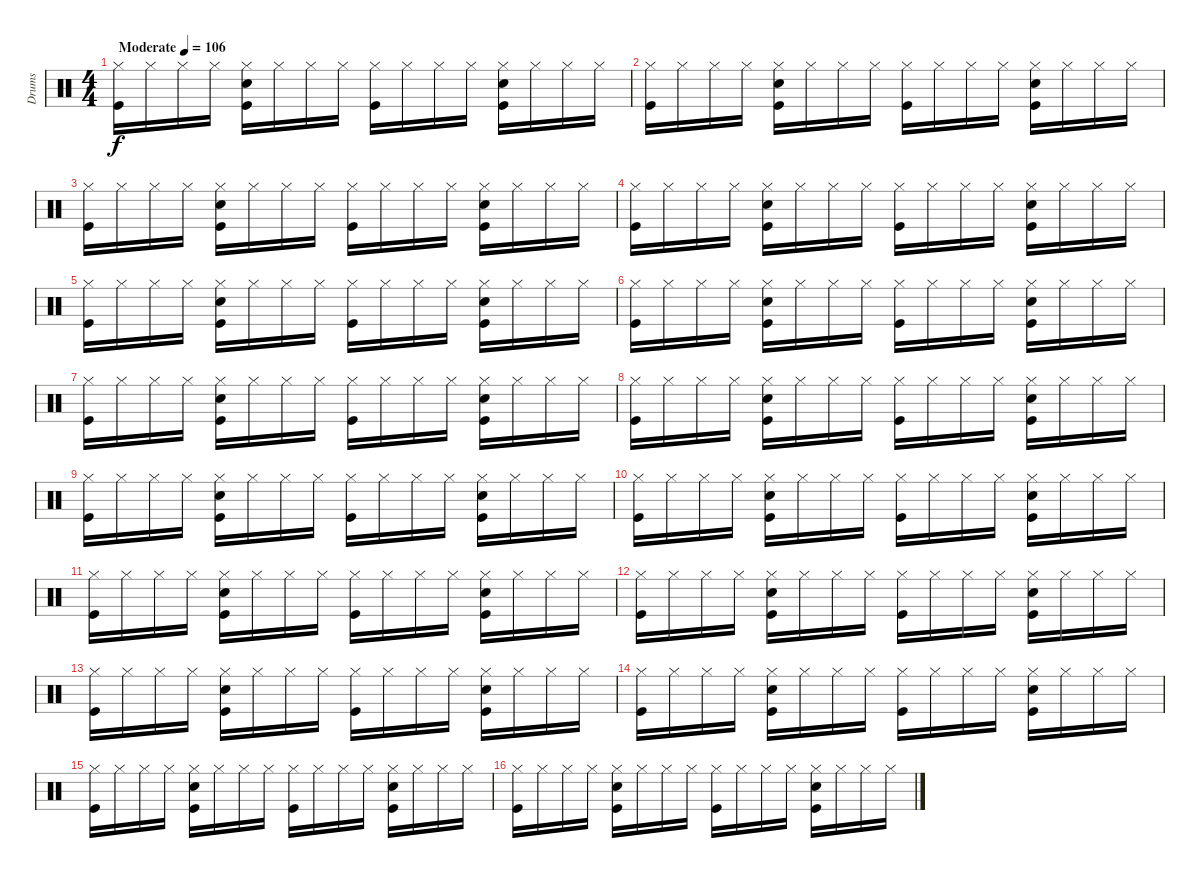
\track ("Drums" "Drums") {instrument percussion}
\staff {score}
\articulation defaults
\ts (4 4)
\tempo (106 "Moderate")
\clef neutral
\ks c
("Hi-Hat (closed)" "Kick (hit)").16{dy f} "Hi-Hat (closed)".16 "Hi-Hat (closed)".16 "Hi-Hat (closed)".16 ("Hi-Hat (closed)" "Snare (hit) 2" "Kick (hit)").16 "Hi-Hat (closed)".16 "Hi-Hat (closed)".16 "Hi-Hat (closed)".16 ("Hi-Hat (closed)" "Kick (hit)").16 "Hi-Hat (closed)".16 "Hi-Hat (closed)".16 "Hi-Hat (closed)".16 ("Hi-Hat (closed)" "Snare (hit) 2" "Kick (hit)").16 "Hi-Hat (closed)".16 "Hi-Hat (closed)".16 "Hi-Hat (closed)".16 |
("Hi-Hat (closed)" "Kick (hit)").16 "Hi-Hat (closed)".16 "Hi-Hat (closed)".16 "Hi-Hat (closed)".16 ("Hi-Hat (closed)" "Snare (hit) 2" "Kick (hit)").16 "Hi-Hat (closed)".16 "Hi-Hat (closed)".16 "Hi-Hat (closed)".16 ("Hi-Hat (closed)" "Kick (hit)").16 "Hi-Hat (closed)".16 "Hi-Hat (closed)".16 "Hi-Hat (closed)".16 ("Hi-Hat (closed)" "Snare (hit) 2" "Kick (hit)").16 "Hi-Hat (closed)".16 "Hi-Hat (closed)".16 "Hi-Hat (closed)".16 |
("Hi-Hat (closed)" "Kick (hit)").16 "Hi-Hat (closed)".16 "Hi-Hat (closed)".16 "Hi-Hat (closed)".16 ("Snare (hit) 2" "Hi-Hat (closed)" "Kick (hit)").16 "Hi-Hat (closed)".16 "Hi-Hat (closed)".16 "Hi-Hat (closed)".16 ("Hi-Hat (closed)" "Kick (hit)").16 "Hi-Hat (closed)".16 "Hi-Hat (closed)".16 "Hi-Hat (closed)".16 ("Hi-Hat (closed)" "Snare (hit) 2" "Kick (hit)").16 "Hi-Hat (closed)".16 "Hi-Hat (closed)".16 "Hi-Hat (closed)".16 |
("Hi-Hat (closed)" "Kick (hit)").16 "Hi-Hat (closed)".16 "Hi-Hat (closed)".16 "Hi-Hat (closed)".16 ("Snare (hit) 2" "Hi-Hat (closed)" "Kick (hit)").16 "Hi-Hat (closed)".16 "Hi-Hat (closed)".16 "Hi-Hat (closed)".16 ("Hi-Hat (closed)" "Kick (hit)").16 "Hi-Hat (closed)".16 "Hi-Hat (closed)".16 "Hi-Hat (closed)".16 ("Hi-Hat (closed)" "Snare (hit) 2" "Kick (hit)").16 "Hi-Hat (closed)".16 "Hi-Hat (closed)".16 "Hi-Hat (closed)".16 |
("Kick (hit)" "Hi-Hat (closed)").16 "Hi-Hat (closed)".16 "Hi-Hat (closed)".16 "Hi-Hat (closed)".16 ("Kick (hit)" "Hi-Hat (closed)" "Snare (hit) 2").16 "Hi-Hat (closed)".16 "Hi-Hat (closed)".16 "Hi-Hat (closed)".16 ("Kick (hit)" "Hi-Hat (closed)").16 "Hi-Hat (closed)".16 "Hi-Hat (closed)".16 "Hi-Hat (closed)".16 ("Kick (hit)" "Snare (hit) 2" "Hi-Hat (closed)").16 "Hi-Hat (closed)".16 "Hi-Hat (closed)".16 "Hi-Hat (closed)".16 |
("Hi-Hat (closed)" "Kick (hit)").16 "Hi-Hat (closed)".16 "Hi-Hat (closed)".16 "Hi-Hat (closed)".16 ("Kick (hit)" "Hi-Hat (closed)" "Snare (hit) 2").16 "Hi-Hat (closed)".16 "Hi-Hat (closed)".16 "Hi-Hat (closed)".16 ("Kick (hit)" "Hi-Hat (closed)").16 "Hi-Hat (closed)".16 "Hi-Hat (closed)".16 "Hi-Hat (closed)".16 ("Kick (hit)" "Snare (hit) 2" "Hi-Hat (closed)").16 "Hi-Hat (closed)".16 "Hi-Hat (closed)".16 "Hi-Hat (closed)".16 |
("Hi-Hat (closed)" "Kick (hit)").16 "Hi-Hat (closed)".16 "Hi-Hat (closed)".16 "Hi-Hat (closed)".16 ("Kick (hit)" "Hi-Hat (closed)" "Snare (hit) 2").16 "Hi-Hat (closed)".16 "Hi-Hat (closed)".16 "Hi-Hat (closed)".16 ("Kick (hit)" "Hi-Hat (closed)").16 "Hi-Hat (closed)".16 "Hi-Hat (closed)".16 "Hi-Hat (closed)".16 ("Kick (hit)" "Snare (hit) 2" "Hi-Hat (closed)").16 "Hi-Hat (closed)".16 "Hi-Hat (closed)".16 "Hi-Hat (closed)".16 |
("Kick (hit)" "Hi-Hat (closed)").16 "Hi-Hat (closed)".16 "Hi-Hat (closed)".16 "Hi-Hat (closed)".16 ("Kick (hit)" "Hi-Hat (closed)" "Snare (hit) 2").16 "Hi-Hat (closed)".16 "Hi-Hat (closed)".16 "Hi-Hat (closed)".16 ("Kick (hit)" "Hi-Hat (closed)").16 "Hi-Hat (closed)".16 "Hi-Hat (closed)".16 "Hi-Hat (closed)".16 ("Kick (hit)" "Snare (hit) 2" "Hi-Hat (closed)").16 "Hi-Hat (closed)".16 "Hi-Hat (closed)".16 "Hi-Hat (closed)".16 |
("Kick (hit)" "Hi-Hat (closed)").16 "Hi-Hat (closed)".16 "Hi-Hat (closed)".16 "Hi-Hat (closed)".16 ("Kick (hit)" "Hi-Hat (closed)" "Snare (hit) 2").16 "Hi-Hat (closed)".16 "Hi-Hat (closed)".16 "Hi-Hat (closed)".16 ("Kick (hit)" "Hi-Hat (closed)").16 "Hi-Hat (closed)".16 "Hi-Hat (closed)".16 "Hi-Hat (closed)".16 ("Kick (hit)" "Snare (hit) 2" "Hi-Hat (closed)").16 "Hi-Hat (closed)".16 "Hi-Hat (closed)".16 "Hi-Hat (closed)".16 |
("Kick (hit)" "Hi-Hat (closed)").16 "Hi-Hat (closed)".16 "Hi-Hat (closed)".16 "Hi-Hat (closed)".16 ("Kick (hit)" "Hi-Hat (closed)" "Snare (hit) 2").16 "Hi-Hat (closed)".16 "Hi-Hat (closed)".16 "Hi-Hat (closed)".16 ("Kick (hit)" "Hi-Hat (closed)").16 "Hi-Hat (closed)".16 "Hi-Hat (closed)".16 "Hi-Hat (closed)".16 ("Kick (hit)" "Snare (hit) 2" "Hi-Hat (closed)").16 "Hi-Hat (closed)".16 "Hi-Hat (closed)".16 "Hi-Hat (closed)".16 |
("Kick (hit)" "Hi-Hat (closed)").16 "Hi-Hat (closed)".16 "Hi-Hat (closed)".16 "Hi-Hat (closed)".16 ("Kick (hit)" "Hi-Hat (closed)" "Snare (hit) 2").16 "Hi-Hat (closed)".16 "Hi-Hat (closed)".16 "Hi-Hat (closed)".16 ("Kick (hit)" "Hi-Hat (closed)").16 "Hi-Hat (closed)".16 "Hi-Hat (closed)".16 "Hi-Hat (closed)".16 ("Kick (hit)" "Snare (hit) 2" "Hi-Hat (closed)").16 "Hi-Hat (closed)".16 "Hi-Hat (closed)".16 "Hi-Hat (closed)".16 |
("Kick (hit)" "Hi-Hat (closed)").16 "Hi-Hat (closed)".16 "Hi-Hat (closed)".16 "Hi-Hat (closed)".16 ("Kick (hit)" "Hi-Hat (closed)" "Snare (hit) 2").16 "Hi-Hat (closed)".16 "Hi-Hat (closed)".16 "Hi-Hat (closed)".16 ("Kick (hit)" "Hi-Hat (closed)").16 "Hi-Hat (closed)".16 "Hi-Hat (closed)".16 "Hi-Hat (closed)".16 ("Kick (hit)" "Snare (hit) 2" "Hi-Hat (closed)").16 "Hi-Hat (closed)".16 "Hi-Hat (closed)".16 "Hi-Hat (closed)".16 |
("Kick (hit)" "Hi-Hat (closed)").16 "Hi-Hat (closed)".16 "Hi-Hat (closed)".16 "Hi-Hat (closed)".16 ("Kick (hit)" "Hi-Hat (closed)" "Snare (hit) 2").16 "Hi-Hat (closed)".16 "Hi-Hat (closed)".16 "Hi-Hat (closed)".16 ("Kick (hit)" "Hi-Hat (closed)").16 "Hi-Hat (closed)".16 "Hi-Hat (closed)".16 "Hi-Hat (closed)".16 ("Kick (hit)" "Snare (hit) 2" "Hi-Hat (closed)").16 "Hi-Hat (closed)".16 "Hi-Hat (closed)".16 "Hi-Hat (closed)".16 |
("Kick (hit)" "Hi-Hat (closed)").16 "Hi-Hat (closed)".16 "Hi-Hat (closed)".16 "Hi-Hat (closed)".16 ("Kick (hit)" "Hi-Hat (closed)" "Snare (hit) 2").16 "Hi-Hat (closed)".16 "Hi-Hat (closed)".16 "Hi-Hat (closed)".16 ("Kick (hit)" "Hi-Hat (closed)").16 "Hi-Hat (closed)".16 "Hi-Hat (closed)".16 "Hi-Hat (closed)".16 ("Kick (hit)" "Snare (hit) 2" "Hi-Hat (closed)").16 "Hi-Hat (closed)".16 "Hi-Hat (closed)".16 "Hi-Hat (closed)".16 |
("Kick (hit)" "Hi-Hat (closed)").16 "Hi-Hat (closed)".16 "Hi-Hat (closed)".16 "Hi-Hat (closed)".16 ("Kick (hit)" "Hi-Hat (closed)" "Snare (hit) 2").16 "Hi-Hat (closed)".16 "Hi-Hat (closed)".16 "Hi-Hat (closed)".16 ("Kick (hit)" "Hi-Hat (closed)").16 "Hi-Hat (closed)".16 "Hi-Hat (closed)".16 "Hi-Hat (closed)".16 ("Kick (hit)" "Snare (hit) 2" "Hi-Hat (closed)").16 "Hi-Hat (closed)".16 "Hi-Hat (closed)".16 "Hi-Hat (closed)".16 |
("Kick (hit)" "Hi-Hat (closed)").16 "Hi-Hat (closed)".16 "Hi-Hat (closed)".16 "Hi-Hat (closed)".16 ("Kick (hit)" "Hi-Hat (closed)" "Snare (hit) 2").16 "Hi-Hat (closed)".16 "Hi-Hat (closed)".16 "Hi-Hat (closed)".16 ("Kick (hit)" "Hi-Hat (closed)").16 "Hi-Hat (closed)".16 "Hi-Hat (closed)".16 "Hi-Hat (closed)".16 ("Hi-Hat (closed)" "Snare (hit) 2" "Kick (hit)").16 "Hi-Hat (closed)".16 "Hi-Hat (closed)".16 "Hi-Hat (closed)".16
